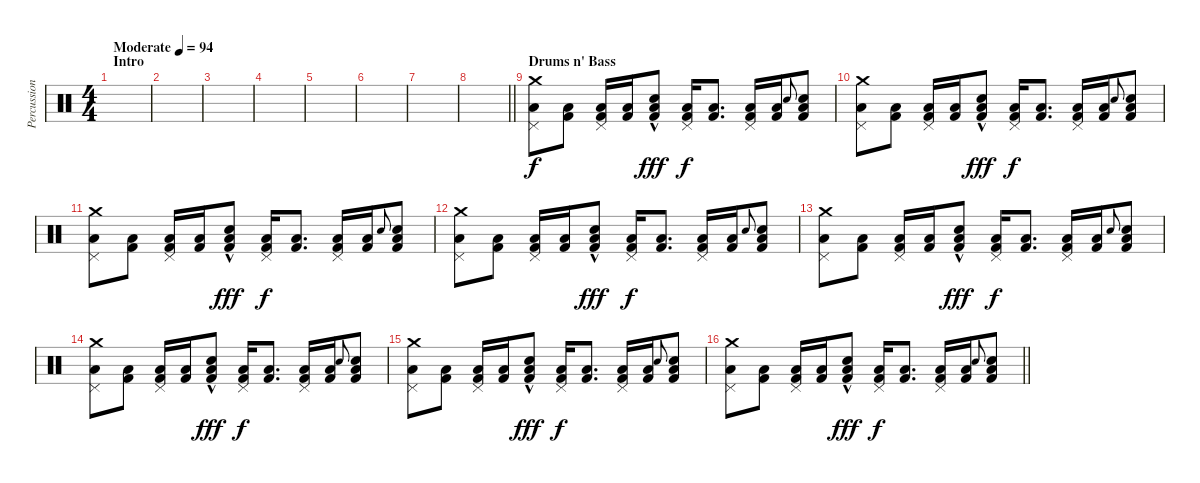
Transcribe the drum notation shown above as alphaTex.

\track ("Percussion" "Percussion") {instrument percussion}
\staff {score}
\articulation defaults
\ts (4 4)
\section ("" "Intro")
\tempo (94 "Moderate")
\clef neutral
\ks c
|
|
|
|
|
|
|
\barLineRight lightlight
|
\section ("" "Drums n' Bass")
("Crash medium (hit)" "Pedal Hi-Hat (hit)" "Low Floor Tom (hit)").8 ("Kick (hit) 2" "Low Floor Tom (hit)").8 ("Kick (hit) 2" "Pedal Hi-Hat (hit)" "Low Floor Tom (hit)").16 ("Kick (hit) 2" "Low Floor Tom (hit)").16 ("Snare (hit) 2"{hac} "Kick (hit) 2" "Low Floor Tom (hit)").8{dy fff} ("Kick (hit) 2" "Pedal Hi-Hat (hit)" "Low Floor Tom (hit)").16{dy f} ("Kick (hit) 2" "Low Floor Tom (hit)").8{d} ("Kick (hit) 2" "Pedal Hi-Hat (hit)" "Low Floor Tom (hit)").16 ("Kick (hit) 2" "Low Floor Tom (hit)").16 "Snare (hit) 2".8{gr onbeat} ("Snare (hit) 2" "Kick (hit) 2" "Low Floor Tom (hit)").8 |
("Crash medium (hit)" "Pedal Hi-Hat (hit)" "Low Floor Tom (hit)").8 ("Kick (hit) 2" "Low Floor Tom (hit)").8 ("Kick (hit) 2" "Pedal Hi-Hat (hit)" "Low Floor Tom (hit)").16 ("Kick (hit) 2" "Low Floor Tom (hit)").16 ("Snare (hit) 2"{hac} "Kick (hit) 2" "Low Floor Tom (hit)").8{dy fff} ("Kick (hit) 2" "Pedal Hi-Hat (hit)" "Low Floor Tom (hit)").16{dy f} ("Kick (hit) 2" "Low Floor Tom (hit)").8{d} ("Kick (hit) 2" "Pedal Hi-Hat (hit)" "Low Floor Tom (hit)").16 ("Kick (hit) 2" "Low Floor Tom (hit)").16 "Snare (hit) 2".8{gr onbeat} ("Snare (hit) 2" "Kick (hit) 2" "Low Floor Tom (hit)").8 |
("Crash medium (hit)" "Pedal Hi-Hat (hit)" "Low Floor Tom (hit)").8 ("Kick (hit) 2" "Low Floor Tom (hit)").8 ("Kick (hit) 2" "Pedal Hi-Hat (hit)" "Low Floor Tom (hit)").16 ("Kick (hit) 2" "Low Floor Tom (hit)").16 ("Snare (hit) 2"{hac} "Kick (hit) 2" "Low Floor Tom (hit)").8{dy fff} ("Kick (hit) 2" "Pedal Hi-Hat (hit)" "Low Floor Tom (hit)").16{dy f} ("Kick (hit) 2" "Low Floor Tom (hit)").8{d} ("Kick (hit) 2" "Pedal Hi-Hat (hit)" "Low Floor Tom (hit)").16 ("Kick (hit) 2" "Low Floor Tom (hit)").16 "Snare (hit) 2".8{gr onbeat} ("Snare (hit) 2" "Kick (hit) 2" "Low Floor Tom (hit)").8 |
("Crash medium (hit)" "Pedal Hi-Hat (hit)" "Low Floor Tom (hit)").8 ("Kick (hit) 2" "Low Floor Tom (hit)").8 ("Kick (hit) 2" "Pedal Hi-Hat (hit)" "Low Floor Tom (hit)").16 ("Kick (hit) 2" "Low Floor Tom (hit)").16 ("Snare (hit) 2"{hac} "Kick (hit) 2" "Low Floor Tom (hit)").8{dy fff} ("Kick (hit) 2" "Pedal Hi-Hat (hit)" "Low Floor Tom (hit)").16{dy f} ("Kick (hit) 2" "Low Floor Tom (hit)").8{d} ("Kick (hit) 2" "Pedal Hi-Hat (hit)" "Low Floor Tom (hit)").16 ("Kick (hit) 2" "Low Floor Tom (hit)").16 "Snare (hit) 2".8{gr onbeat} ("Snare (hit) 2" "Kick (hit) 2" "Low Floor Tom (hit)").8 |
("Crash medium (hit)" "Pedal Hi-Hat (hit)" "Low Floor Tom (hit)").8 ("Kick (hit) 2" "Low Floor Tom (hit)").8 ("Kick (hit) 2" "Pedal Hi-Hat (hit)" "Low Floor Tom (hit)").16 ("Kick (hit) 2" "Low Floor Tom (hit)").16 ("Snare (hit) 2"{hac} "Kick (hit) 2" "Low Floor Tom (hit)").8{dy fff} ("Kick (hit) 2" "Pedal Hi-Hat (hit)" "Low Floor Tom (hit)").16{dy f} ("Kick (hit) 2" "Low Floor Tom (hit)").8{d} ("Kick (hit) 2" "Pedal Hi-Hat (hit)" "Low Floor Tom (hit)").16 ("Kick (hit) 2" "Low Floor Tom (hit)").16 "Snare (hit) 2".8{gr onbeat} ("Snare (hit) 2" "Kick (hit) 2" "Low Floor Tom (hit)").8 |
("Crash medium (hit)" "Pedal Hi-Hat (hit)" "Low Floor Tom (hit)").8 ("Kick (hit) 2" "Low Floor Tom (hit)").8 ("Kick (hit) 2" "Pedal Hi-Hat (hit)" "Low Floor Tom (hit)").16 ("Kick (hit) 2" "Low Floor Tom (hit)").16 ("Snare (hit) 2"{hac} "Kick (hit) 2" "Low Floor Tom (hit)").8{dy fff} ("Kick (hit) 2" "Pedal Hi-Hat (hit)" "Low Floor Tom (hit)").16{dy f} ("Kick (hit) 2" "Low Floor Tom (hit)").8{d} ("Kick (hit) 2" "Pedal Hi-Hat (hit)" "Low Floor Tom (hit)").16 ("Kick (hit) 2" "Low Floor Tom (hit)").16 "Snare (hit) 2".8{gr onbeat} ("Snare (hit) 2" "Kick (hit) 2" "Low Floor Tom (hit)").8 |
("Crash medium (hit)" "Pedal Hi-Hat (hit)" "Low Floor Tom (hit)").8 ("Kick (hit) 2" "Low Floor Tom (hit)").8 ("Kick (hit) 2" "Pedal Hi-Hat (hit)" "Low Floor Tom (hit)").16 ("Kick (hit) 2" "Low Floor Tom (hit)").16 ("Snare (hit) 2"{hac} "Kick (hit) 2" "Low Floor Tom (hit)").8{dy fff} ("Kick (hit) 2" "Pedal Hi-Hat (hit)" "Low Floor Tom (hit)").16{dy f} ("Kick (hit) 2" "Low Floor Tom (hit)").8{d} ("Kick (hit) 2" "Pedal Hi-Hat (hit)" "Low Floor Tom (hit)").16 ("Kick (hit) 2" "Low Floor Tom (hit)").16 "Snare (hit) 2".8{gr onbeat} ("Snare (hit) 2" "Kick (hit) 2" "Low Floor Tom (hit)").8 |
\barLineRight lightlight
("Crash medium (hit)" "Pedal Hi-Hat (hit)" "Low Floor Tom (hit)").8 ("Kick (hit) 2" "Low Floor Tom (hit)").8 ("Kick (hit) 2" "Pedal Hi-Hat (hit)" "Low Floor Tom (hit)").16 ("Kick (hit) 2" "Low Floor Tom (hit)").16 ("Snare (hit) 2"{hac} "Kick (hit) 2" "Low Floor Tom (hit)").8{dy fff} ("Kick (hit) 2" "Pedal Hi-Hat (hit)" "Low Floor Tom (hit)").16{dy f} ("Kick (hit) 2" "Low Floor Tom (hit)").8{d} ("Kick (hit) 2" "Pedal Hi-Hat (hit)" "Low Floor Tom (hit)").16 ("Kick (hit) 2" "Low Floor Tom (hit)").16 "Snare (hit) 2".8{gr onbeat} ("Snare (hit) 2" "Kick (hit) 2" "Low Floor Tom (hit)").8
